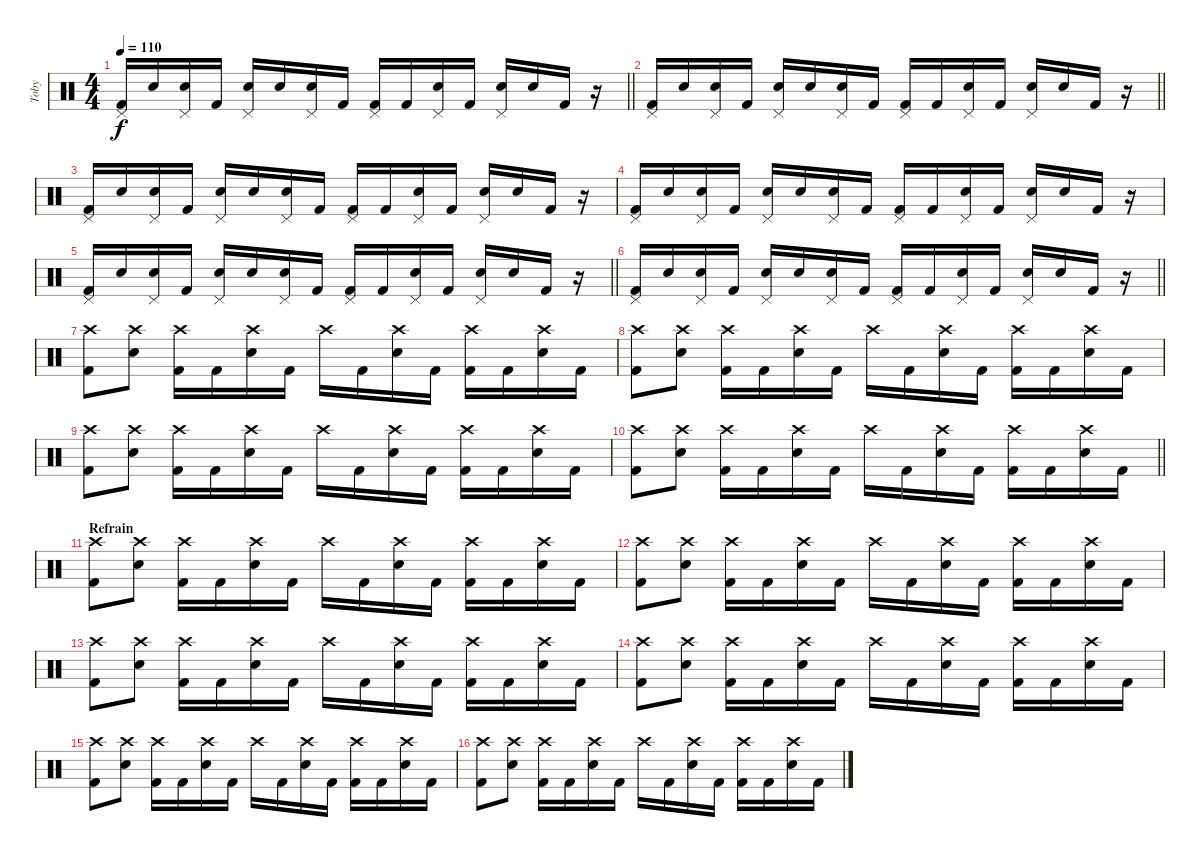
\track ("Toby" "Toby") {instrument percussion}
\staff {score}
\articulation defaults
\ts (4 4)
\tempo 110
\clef neutral
\barLineRight lightlight
\ks c
("Pedal Hi-Hat (hit)" "Kick (hit) 2").16{dy f} "Snare (hit)".16 ("Pedal Hi-Hat (hit)" "Snare (hit)").16 "Kick (hit) 2".16 ("Pedal Hi-Hat (hit)" "Electric Snare (hit)").16 "Snare (hit)".16 ("Pedal Hi-Hat (hit)" "Snare (hit)").16 "Kick (hit) 2".16 ("Pedal Hi-Hat (hit)" "Kick (hit) 2").16 "Kick (hit) 2".16 ("Pedal Hi-Hat (hit)" "Snare (hit)").16 "Kick (hit) 2".16 ("Pedal Hi-Hat (hit)" "Electric Snare (hit)").16 "Snare (hit)".16 "Kick (hit) 2".16 r.16 |
\barLineRight lightlight
("Pedal Hi-Hat (hit)" "Kick (hit) 2").16 "Snare (hit)".16 ("Pedal Hi-Hat (hit)" "Snare (hit)").16 "Kick (hit) 2".16 ("Pedal Hi-Hat (hit)" "Electric Snare (hit)").16 "Snare (hit)".16 ("Pedal Hi-Hat (hit)" "Snare (hit)").16 "Kick (hit) 2".16 ("Pedal Hi-Hat (hit)" "Kick (hit) 2").16 "Kick (hit) 2".16 ("Pedal Hi-Hat (hit)" "Snare (hit)").16 "Kick (hit) 2".16 ("Pedal Hi-Hat (hit)" "Electric Snare (hit)").16 "Snare (hit)".16 "Kick (hit) 2".16 r.16 |
("Pedal Hi-Hat (hit)" "Kick (hit) 2").16 "Snare (hit)".16 ("Pedal Hi-Hat (hit)" "Snare (hit)").16 "Kick (hit) 2".16 ("Pedal Hi-Hat (hit)" "Electric Snare (hit)").16 "Snare (hit)".16 ("Pedal Hi-Hat (hit)" "Snare (hit)").16 "Kick (hit) 2".16 ("Pedal Hi-Hat (hit)" "Kick (hit) 2").16 "Kick (hit) 2".16 ("Pedal Hi-Hat (hit)" "Snare (hit)").16 "Kick (hit) 2".16 ("Pedal Hi-Hat (hit)" "Electric Snare (hit)").16 "Snare (hit)".16 "Kick (hit) 2".16 r.16 |
("Pedal Hi-Hat (hit)" "Kick (hit) 2").16 "Snare (hit)".16 ("Pedal Hi-Hat (hit)" "Snare (hit)").16 "Kick (hit) 2".16 ("Pedal Hi-Hat (hit)" "Electric Snare (hit)").16 "Snare (hit)".16 ("Pedal Hi-Hat (hit)" "Snare (hit)").16 "Kick (hit) 2".16 ("Pedal Hi-Hat (hit)" "Kick (hit) 2").16 "Kick (hit) 2".16 ("Pedal Hi-Hat (hit)" "Snare (hit)").16 "Kick (hit) 2".16 ("Pedal Hi-Hat (hit)" "Electric Snare (hit)").16 "Snare (hit)".16 "Kick (hit) 2".16 r.16 |
\barLineRight lightlight
("Pedal Hi-Hat (hit)" "Kick (hit) 2").16 "Snare (hit)".16 ("Pedal Hi-Hat (hit)" "Snare (hit)").16 "Kick (hit) 2".16 ("Pedal Hi-Hat (hit)" "Electric Snare (hit)").16 "Snare (hit)".16 ("Pedal Hi-Hat (hit)" "Snare (hit)").16 "Kick (hit) 2".16 ("Pedal Hi-Hat (hit)" "Kick (hit) 2").16 "Kick (hit) 2".16 ("Pedal Hi-Hat (hit)" "Snare (hit)").16 "Kick (hit) 2".16 ("Pedal Hi-Hat (hit)" "Electric Snare (hit)").16 "Snare (hit)".16 "Kick (hit) 2".16 r.16 |
\barLineRight lightlight
("Pedal Hi-Hat (hit)" "Kick (hit) 2").16 "Snare (hit)".16 ("Pedal Hi-Hat (hit)" "Snare (hit)").16 "Kick (hit) 2".16 ("Pedal Hi-Hat (hit)" "Electric Snare (hit)").16 "Snare (hit)".16 ("Pedal Hi-Hat (hit)" "Snare (hit)").16 "Kick (hit) 2".16 ("Pedal Hi-Hat (hit)" "Kick (hit) 2").16 "Kick (hit) 2".16 ("Pedal Hi-Hat (hit)" "Snare (hit)").16 "Kick (hit) 2".16 ("Pedal Hi-Hat (hit)" "Electric Snare (hit)").16 "Snare (hit)".16 "Kick (hit) 2".16 r.16 |
("Crash high (hit)" "Kick (hit) 2").8 ("Crash high (hit)" "Electric Snare (hit)").8 ("Crash high (hit)" "Kick (hit) 2").16 "Kick (hit) 2".16 ("Crash high (hit)" "Electric Snare (hit)").16 "Kick (hit) 2".16 "Crash high (hit)".16 "Kick (hit) 2".16 ("Crash high (hit)" "Electric Snare (hit)").16 "Kick (hit) 2".16 ("Crash high (hit)" "Kick (hit) 2").16 "Kick (hit) 2".16 ("Crash high (hit)" "Electric Snare (hit)").16 "Kick (hit) 2".16 |
("Crash high (hit)" "Kick (hit) 2").8 ("Crash high (hit)" "Electric Snare (hit)").8 ("Crash high (hit)" "Kick (hit) 2").16 "Kick (hit) 2".16 ("Crash high (hit)" "Electric Snare (hit)").16 "Kick (hit) 2".16 "Crash high (hit)".16 "Kick (hit) 2".16 ("Crash high (hit)" "Electric Snare (hit)").16 "Kick (hit) 2".16 ("Crash high (hit)" "Kick (hit) 2").16 "Kick (hit) 2".16 ("Crash high (hit)" "Electric Snare (hit)").16 "Kick (hit) 2".16 |
("Crash high (hit)" "Kick (hit) 2").8 ("Crash high (hit)" "Electric Snare (hit)").8 ("Crash high (hit)" "Kick (hit) 2").16 "Kick (hit) 2".16 ("Crash high (hit)" "Electric Snare (hit)").16 "Kick (hit) 2".16 "Crash high (hit)".16 "Kick (hit) 2".16 ("Crash high (hit)" "Electric Snare (hit)").16 "Kick (hit) 2".16 ("Crash high (hit)" "Kick (hit) 2").16 "Kick (hit) 2".16 ("Crash high (hit)" "Electric Snare (hit)").16 "Kick (hit) 2".16 |
\barLineRight lightlight
("Crash high (hit)" "Kick (hit) 2").8 ("Crash high (hit)" "Electric Snare (hit)").8 ("Crash high (hit)" "Kick (hit) 2").16 "Kick (hit) 2".16 ("Crash high (hit)" "Electric Snare (hit)").16 "Kick (hit) 2".16 "Crash high (hit)".16 "Kick (hit) 2".16 ("Crash high (hit)" "Electric Snare (hit)").16 "Kick (hit) 2".16 ("Crash high (hit)" "Kick (hit) 2").16 "Kick (hit) 2".16 ("Crash high (hit)" "Electric Snare (hit)").16 "Kick (hit) 2".16 |
\section ("" "Refrain")
("Crash high (hit)" "Kick (hit) 2").8 ("Crash high (hit)" "Electric Snare (hit)").8 ("Crash high (hit)" "Kick (hit) 2").16 "Kick (hit) 2".16 ("Crash high (hit)" "Electric Snare (hit)").16 "Kick (hit) 2".16 "Crash high (hit)".16 "Kick (hit) 2".16 ("Crash high (hit)" "Electric Snare (hit)").16 "Kick (hit) 2".16 ("Crash high (hit)" "Kick (hit) 2").16 "Kick (hit) 2".16 ("Crash high (hit)" "Electric Snare (hit)").16 "Kick (hit) 2".16 |
("Crash high (hit)" "Kick (hit) 2").8 ("Crash high (hit)" "Electric Snare (hit)").8 ("Crash high (hit)" "Kick (hit) 2").16 "Kick (hit) 2".16 ("Crash high (hit)" "Electric Snare (hit)").16 "Kick (hit) 2".16 "Crash high (hit)".16 "Kick (hit) 2".16 ("Crash high (hit)" "Electric Snare (hit)").16 "Kick (hit) 2".16 ("Crash high (hit)" "Kick (hit) 2").16 "Kick (hit) 2".16 ("Crash high (hit)" "Electric Snare (hit)").16 "Kick (hit) 2".16 |
("Crash high (hit)" "Kick (hit) 2").8 ("Crash high (hit)" "Electric Snare (hit)").8 ("Crash high (hit)" "Kick (hit) 2").16 "Kick (hit) 2".16 ("Crash high (hit)" "Electric Snare (hit)").16 "Kick (hit) 2".16 "Crash high (hit)".16 "Kick (hit) 2".16 ("Crash high (hit)" "Electric Snare (hit)").16 "Kick (hit) 2".16 ("Crash high (hit)" "Kick (hit) 2").16 "Kick (hit) 2".16 ("Crash high (hit)" "Electric Snare (hit)").16 "Kick (hit) 2".16 |
("Crash high (hit)" "Kick (hit) 2").8 ("Crash high (hit)" "Electric Snare (hit)").8 ("Crash high (hit)" "Kick (hit) 2").16 "Kick (hit) 2".16 ("Crash high (hit)" "Electric Snare (hit)").16 "Kick (hit) 2".16 "Crash high (hit)".16 "Kick (hit) 2".16 ("Crash high (hit)" "Electric Snare (hit)").16 "Kick (hit) 2".16 ("Crash high (hit)" "Kick (hit) 2").16 "Kick (hit) 2".16 ("Crash high (hit)" "Electric Snare (hit)").16 "Kick (hit) 2".16 |
("Crash high (hit)" "Kick (hit) 2").8 ("Crash high (hit)" "Electric Snare (hit)").8 ("Crash high (hit)" "Kick (hit) 2").16 "Kick (hit) 2".16 ("Crash high (hit)" "Electric Snare (hit)").16 "Kick (hit) 2".16 "Crash high (hit)".16 "Kick (hit) 2".16 ("Crash high (hit)" "Electric Snare (hit)").16 "Kick (hit) 2".16 ("Crash high (hit)" "Kick (hit) 2").16 "Kick (hit) 2".16 ("Crash high (hit)" "Electric Snare (hit)").16 "Kick (hit) 2".16 |
("Crash high (hit)" "Kick (hit) 2").8 ("Crash high (hit)" "Electric Snare (hit)").8 ("Crash high (hit)" "Kick (hit) 2").16 "Kick (hit) 2".16 ("Crash high (hit)" "Electric Snare (hit)").16 "Kick (hit) 2".16 "Crash high (hit)".16 "Kick (hit) 2".16 ("Crash high (hit)" "Electric Snare (hit)").16 "Kick (hit) 2".16 ("Crash high (hit)" "Kick (hit) 2").16 "Kick (hit) 2".16 ("Crash high (hit)" "Electric Snare (hit)").16 "Kick (hit) 2".16
